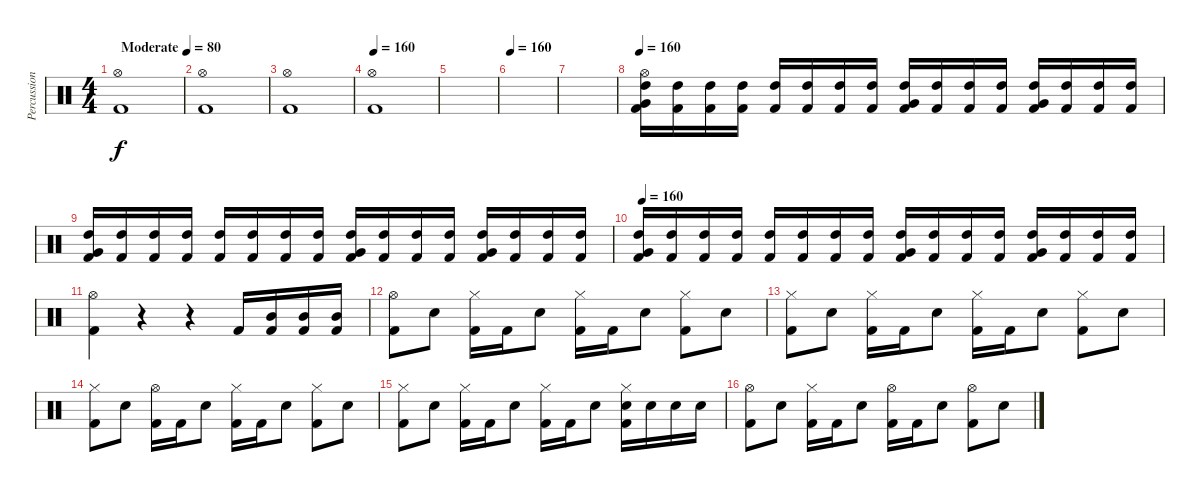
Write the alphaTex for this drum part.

\track ("Percussion" "Percussion") {instrument percussion}
\staff {score}
\articulation defaults
\ts (4 4)
\tempo (80 "Moderate")
\clef neutral
\ks c
("Hi-Hat (open)" "Kick (hit) 2").1{dy f} |
("Hi-Hat (open)" "Kick (hit) 2").1 |
("Hi-Hat (open)" "Kick (hit) 2").1 |
\tempo 160
("Hi-Hat (open)" "Kick (hit) 2").1 |
|
\tempo 160
|
|
\tempo 160
("Hi-Hat (open)" "Very Low Tom (hit)" "High Tom (hit)" "Kick (hit) 2").16 ("High Tom (hit)" "Kick (hit) 2").16 ("High Tom (hit)" "Kick (hit) 2").16 ("High Tom (hit)" "Kick (hit) 2").16 ("High Tom (hit)" "Kick (hit) 2").16 ("High Tom (hit)" "Kick (hit) 2").16 ("High Tom (hit)" "Kick (hit) 2").16 ("High Tom (hit)" "Kick (hit) 2").16 ("Very Low Tom (hit)" "High Tom (hit)" "Kick (hit) 2").16 ("High Tom (hit)" "Kick (hit) 2").16 ("High Tom (hit)" "Kick (hit) 2").16 ("High Tom (hit)" "Kick (hit) 2").16 ("Very Low Tom (hit)" "High Tom (hit)" "Kick (hit) 2").16 ("High Tom (hit)" "Kick (hit) 2").16 ("High Tom (hit)" "Kick (hit) 2").16 ("High Tom (hit)" "Kick (hit) 2").16 |
("Very Low Tom (hit)" "High Tom (hit)" "Kick (hit) 2").16 ("High Tom (hit)" "Kick (hit) 2").16 ("High Tom (hit)" "Kick (hit) 2").16 ("High Tom (hit)" "Kick (hit) 2").16 ("High Tom (hit)" "Kick (hit) 2").16 ("High Tom (hit)" "Kick (hit) 2").16 ("High Tom (hit)" "Kick (hit) 2").16 ("High Tom (hit)" "Kick (hit) 2").16 ("Very Low Tom (hit)" "High Tom (hit)" "Kick (hit) 2").16 ("High Tom (hit)" "Kick (hit) 2").16 ("High Tom (hit)" "Kick (hit) 2").16 ("High Tom (hit)" "Kick (hit) 2").16 ("Very Low Tom (hit)" "High Tom (hit)" "Kick (hit) 2").16 ("High Tom (hit)" "Kick (hit) 2").16 ("High Tom (hit)" "Kick (hit) 2").16 ("High Tom (hit)" "Kick (hit) 2").16 |
\tempo 160
("Very Low Tom (hit)" "High Tom (hit)" "Kick (hit) 2").16 ("High Tom (hit)" "Kick (hit) 2").16 ("High Tom (hit)" "Kick (hit) 2").16 ("High Tom (hit)" "Kick (hit) 2").16 ("High Tom (hit)" "Kick (hit) 2").16 ("High Tom (hit)" "Kick (hit) 2").16 ("High Tom (hit)" "Kick (hit) 2").16 ("High Tom (hit)" "Kick (hit) 2").16 ("Very Low Tom (hit)" "High Tom (hit)" "Kick (hit) 2").16 ("High Tom (hit)" "Kick (hit) 2").16 ("High Tom (hit)" "Kick (hit) 2").16 ("High Tom (hit)" "Kick (hit) 2").16 ("Very Low Tom (hit)" "High Tom (hit)" "Kick (hit) 2").16 ("High Tom (hit)" "Kick (hit) 2").16 ("High Tom (hit)" "Kick (hit) 2").16 ("High Tom (hit)" "Kick (hit) 2").16 |
("Hi-Hat (open)" "Kick (hit) 2").4 r.4 r.4 "Kick (hit) 2".16 ("Mid Tom (hit)" "Kick (hit) 2").16 ("Mid Tom (hit)" "Kick (hit) 2").16 ("Mid Tom (hit)" "Kick (hit) 2").16 |
("Hi-Hat (open)" "Kick (hit) 2").8 "Electric Snare (hit)".8 ("Hi-Hat (closed)" "Kick (hit) 2").16 "Kick (hit) 2".16 "Electric Snare (hit)".8 ("Hi-Hat (closed)" "Kick (hit) 2").16 "Kick (hit) 2".16 "Electric Snare (hit)".8 ("Hi-Hat (closed)" "Kick (hit) 2").8 "Electric Snare (hit)".8 |
("Hi-Hat (closed)" "Kick (hit) 2").8 "Electric Snare (hit)".8 ("Hi-Hat (closed)" "Kick (hit) 2").16 "Kick (hit) 2".16 "Electric Snare (hit)".8 ("Hi-Hat (closed)" "Kick (hit) 2").16 "Kick (hit) 2".16 "Electric Snare (hit)".8 ("Hi-Hat (closed)" "Kick (hit) 2").8 "Electric Snare (hit)".8 |
("Hi-Hat (closed)" "Kick (hit) 2").8 "Electric Snare (hit)".8 ("Hi-Hat (open)" "Kick (hit) 2").16 "Kick (hit) 2".16 "Electric Snare (hit)".8 ("Hi-Hat (closed)" "Kick (hit) 2").16 "Kick (hit) 2".16 "Electric Snare (hit)".8 ("Hi-Hat (closed)" "Kick (hit) 2").8 "Electric Snare (hit)".8 |
("Hi-Hat (closed)" "Kick (hit) 2").8 "Electric Snare (hit)".8 ("Hi-Hat (closed)" "Kick (hit) 2").16 "Kick (hit) 2".16 "Electric Snare (hit)".8 ("Hi-Hat (closed)" "Kick (hit) 2").16 "Kick (hit) 2".16 "Electric Snare (hit)".8 ("Hi-Hat (closed)" "Electric Snare (hit)" "Kick (hit) 2").16 "Electric Snare (hit)".16 "Electric Snare (hit)".16 "Electric Snare (hit)".16 |
("Hi-Hat (open)" "Kick (hit) 2").8 "Electric Snare (hit)".8 ("Hi-Hat (closed)" "Kick (hit) 2").16 "Kick (hit) 2".16 "Electric Snare (hit)".8 ("Hi-Hat (open)" "Kick (hit) 2").16 "Kick (hit) 2".16 "Electric Snare (hit)".8 ("Hi-Hat (open)" "Kick (hit) 2").8 "Electric Snare (hit)".8
